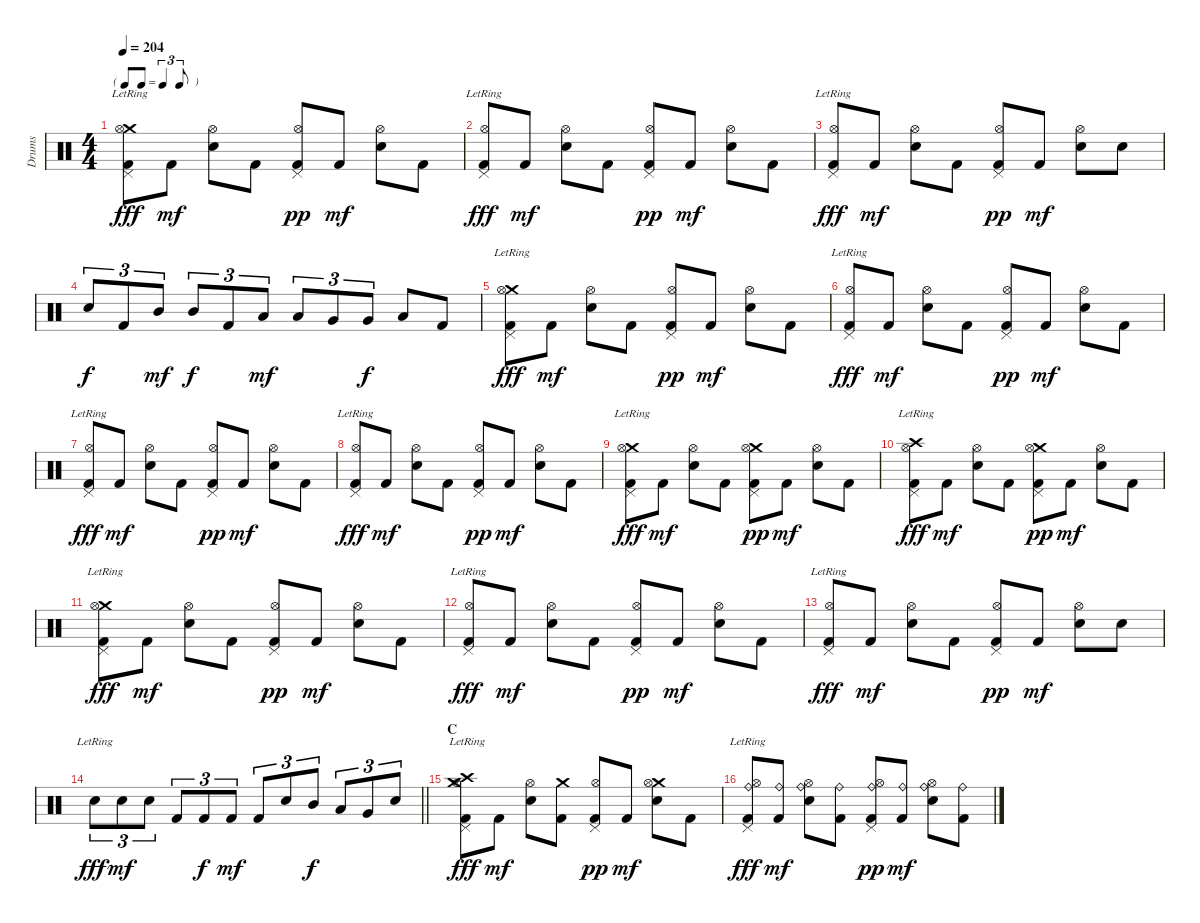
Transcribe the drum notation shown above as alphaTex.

\track ("Drums" "Drums") {instrument percussion}
\staff {score}
\articulation defaults
\ts (4 4)
\tf triplet8th
\tempo 204
\clef neutral
\ks c
("Crash medium (hit)" "Pedal Hi-Hat (hit)" "Hi-Hat (open)" "Kick (hit) 2"{lr}).8{dy fff} "Kick (hit) 2".8{dy mf} ("Hi-Hat (open)" "Electric Snare (hit)").8 "Kick (hit) 2".8 ("Pedal Hi-Hat (hit)" "Hi-Hat (open)" "Kick (hit) 2").8{dy pp} "Kick (hit) 2".8{dy mf} ("Hi-Hat (open)" "Electric Snare (hit)").8 "Kick (hit) 2".8 |
("Pedal Hi-Hat (hit)" "Hi-Hat (open)" "Kick (hit) 2"{lr}).8{dy fff} "Kick (hit) 2".8{dy mf} ("Hi-Hat (open)" "Electric Snare (hit)").8 "Kick (hit) 2".8 ("Pedal Hi-Hat (hit)" "Hi-Hat (open)" "Kick (hit) 2").8{dy pp} "Kick (hit) 2".8{dy mf} ("Hi-Hat (open)" "Electric Snare (hit)").8 "Kick (hit) 2".8 |
("Pedal Hi-Hat (hit)" "Hi-Hat (open)" "Kick (hit) 2"{lr}).8{dy fff} "Kick (hit) 2".8{dy mf} ("Hi-Hat (open)" "Electric Snare (hit)").8 "Kick (hit) 2".8 ("Pedal Hi-Hat (hit)" "Hi-Hat (open)" "Kick (hit) 2").8{dy pp} "Kick (hit) 2".8{dy mf} ("Hi-Hat (open)" "Electric Snare (hit)").8 "Electric Snare (hit)".8 |
"Electric Snare (hit)".8{tu (3 2) dy f} "Kick (hit) 2".8{tu (3 2)} "Mid Tom (hit)".8{tu (3 2) dy mf} "Mid Tom (hit)".8{tu (3 2) dy f} "Kick (hit) 2".8{tu (3 2)} "Low Tom (hit)".8{tu (3 2) dy mf} "Low Tom (hit)".8{tu (3 2)} "Very Low Tom (hit)".8{tu (3 2)} "Very Low Tom (hit)".8{tu (3 2) dy f} "Low Floor Tom (hit)".8 "Kick (hit) 2".8 |
("Crash medium (hit)" "Pedal Hi-Hat (hit)" "Hi-Hat (open)" "Kick (hit) 2"{lr}).8{dy fff} "Kick (hit) 2".8{dy mf} ("Hi-Hat (open)" "Electric Snare (hit)").8 "Kick (hit) 2".8 ("Pedal Hi-Hat (hit)" "Hi-Hat (open)" "Kick (hit) 2").8{dy pp} "Kick (hit) 2".8{dy mf} ("Hi-Hat (open)" "Electric Snare (hit)").8 "Kick (hit) 2".8 |
("Pedal Hi-Hat (hit)" "Hi-Hat (open)" "Kick (hit) 2"{lr}).8{dy fff} "Kick (hit) 2".8{dy mf} ("Hi-Hat (open)" "Electric Snare (hit)").8 "Kick (hit) 2".8 ("Pedal Hi-Hat (hit)" "Hi-Hat (open)" "Kick (hit) 2").8{dy pp} "Kick (hit) 2".8{dy mf} ("Hi-Hat (open)" "Electric Snare (hit)").8 "Kick (hit) 2".8 |
("Pedal Hi-Hat (hit)" "Hi-Hat (open)" "Kick (hit) 2"{lr}).8{dy fff} "Kick (hit) 2".8{dy mf} ("Hi-Hat (open)" "Electric Snare (hit)").8 "Kick (hit) 2".8 ("Pedal Hi-Hat (hit)" "Hi-Hat (open)" "Kick (hit) 2").8{dy pp} "Kick (hit) 2".8{dy mf} ("Hi-Hat (open)" "Electric Snare (hit)").8 "Kick (hit) 2".8 |
("Pedal Hi-Hat (hit)" "Hi-Hat (open)" "Kick (hit) 2"{lr}).8{dy fff} "Kick (hit) 2".8{dy mf} ("Hi-Hat (open)" "Electric Snare (hit)").8 "Kick (hit) 2".8 ("Pedal Hi-Hat (hit)" "Hi-Hat (open)" "Kick (hit) 2").8{dy pp} "Kick (hit) 2".8{dy mf} ("Hi-Hat (open)" "Electric Snare (hit)").8 "Kick (hit) 2".8 |
("Crash medium (hit)" "Pedal Hi-Hat (hit)" "Hi-Hat (open)" "Kick (hit) 2"{lr}).8{dy fff} "Kick (hit) 2".8{dy mf} ("Hi-Hat (open)" "Electric Snare (hit)").8 "Kick (hit) 2".8 ("Crash medium (hit)" "Pedal Hi-Hat (hit)" "Hi-Hat (open)" "Kick (hit) 2").8{dy pp} "Kick (hit) 2".8{dy mf} ("Hi-Hat (open)" "Electric Snare (hit)").8 "Kick (hit) 2".8 |
("Crash high (hit)" "Pedal Hi-Hat (hit)" "Hi-Hat (open)" "Kick (hit) 2"{lr}).8{dy fff} "Kick (hit) 2".8{dy mf} ("Hi-Hat (open)" "Electric Snare (hit)").8 "Kick (hit) 2".8 ("Crash medium (hit)" "Pedal Hi-Hat (hit)" "Hi-Hat (open)" "Kick (hit) 2").8{dy pp} "Kick (hit) 2".8{dy mf} ("Hi-Hat (open)" "Electric Snare (hit)").8 "Kick (hit) 2".8 |
("Crash medium (hit)" "Pedal Hi-Hat (hit)" "Hi-Hat (open)" "Kick (hit) 2"{lr}).8{dy fff} "Kick (hit) 2".8{dy mf} ("Hi-Hat (open)" "Electric Snare (hit)").8 "Kick (hit) 2".8 ("Pedal Hi-Hat (hit)" "Hi-Hat (open)" "Kick (hit) 2").8{dy pp} "Kick (hit) 2".8{dy mf} ("Hi-Hat (open)" "Electric Snare (hit)").8 "Kick (hit) 2".8 |
("Pedal Hi-Hat (hit)" "Hi-Hat (open)" "Kick (hit) 2"{lr}).8{dy fff} "Kick (hit) 2".8{dy mf} ("Hi-Hat (open)" "Electric Snare (hit)").8 "Kick (hit) 2".8 ("Pedal Hi-Hat (hit)" "Hi-Hat (open)" "Kick (hit) 2").8{dy pp} "Kick (hit) 2".8{dy mf} ("Hi-Hat (open)" "Electric Snare (hit)").8 "Kick (hit) 2".8 |
("Pedal Hi-Hat (hit)" "Hi-Hat (open)" "Kick (hit) 2"{lr}).8{dy fff} "Kick (hit) 2".8{dy mf} ("Hi-Hat (open)" "Electric Snare (hit)").8 "Kick (hit) 2".8 ("Pedal Hi-Hat (hit)" "Hi-Hat (open)" "Kick (hit) 2").8{dy pp} "Kick (hit) 2".8{dy mf} ("Hi-Hat (open)" "Electric Snare (hit)").8 "Electric Snare (hit)".8 |
\barLineRight lightlight "Electric Snare (hit)"{lr}.8{tu (3 2) dy fff} "Electric Snare (hit)".8{tu (3 2) dy mf} "Electric Snare (hit)".8{tu (3 2)} "Kick (hit) 2".8{tu (3 2)} "Kick (hit) 2".8{tu (3 2) dy f} "Kick (hit) 2".8{tu (3 2) dy mf} "Kick (hit) 2".8{tu (3 2)} "Electric Snare (hit)".8{tu (3 2)} "Mid Tom (hit)".8{tu (3 2) dy f} "Low Tom (hit)".8{tu (3 2)} "Very Low Tom (hit)".8{tu (3 2)} "Snare (hit) 2".8{tu (3 2)}
|
\section ("" "C")
("Crash high (hit)" "Crash medium (hit)" "Pedal Hi-Hat (hit)" "Hi-Hat (open)" "Kick (hit) 2"{lr}).8{dy fff} "Kick (hit) 2".8{dy mf} ("Hi-Hat (open)" "Electric Snare (hit)").8 ("Crash medium (hit)" "Kick (hit) 2").8 ("Pedal Hi-Hat (hit)" "Hi-Hat (open)" "Kick (hit) 2").8{dy pp} "Kick (hit) 2".8{dy mf} ("Crash medium (hit)" "Hi-Hat (open)" "Electric Snare (hit)").8 "Kick (hit) 2".8 |
("Ride (bell)" "Pedal Hi-Hat (hit)" "Hi-Hat (open)" "Kick (hit) 2"{lr}).8{dy fff} ("Ride (bell)" "Kick (hit) 2").8{dy mf} ("Ride (bell)" "Hi-Hat (open)" "Electric Snare (hit)").8 ("Ride (bell)" "Kick (hit) 2").8 ("Ride (bell)" "Pedal Hi-Hat (hit)" "Hi-Hat (open)" "Kick (hit) 2").8{dy pp} ("Ride (bell)" "Kick (hit) 2").8{dy mf} ("Ride (bell)" "Hi-Hat (open)" "Electric Snare (hit)").8 ("Ride (bell)" "Kick (hit) 2").8
